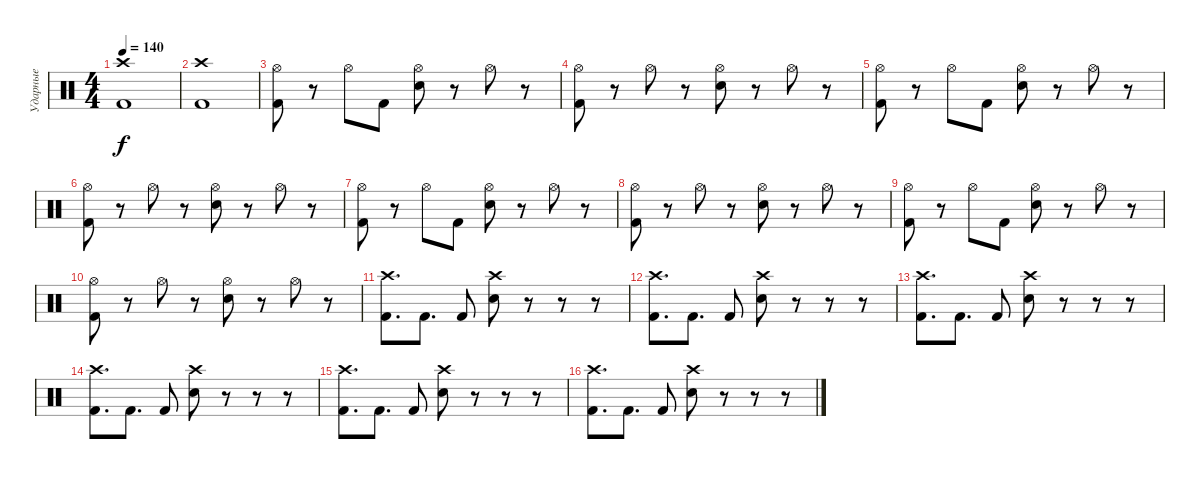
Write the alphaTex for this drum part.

\track ("Ударные" "Ударные") {mute instrument percussion}
\staff {score}
\articulation defaults
\ts (4 4)
\tempo 140
\clef neutral
\ks c
("Kick (hit) 2" "Crash high (hit)").1{dy f} |
("Kick (hit) 2" "Crash high (hit)").1 |
("Kick (hit) 2" "Hi-Hat (open)").8 r.8 "Hi-Hat (open)".8 "Kick (hit) 2".8 ("Electric Snare (hit)" "Hi-Hat (open)").8 r.8 "Hi-Hat (open)".8 r.8 |
("Kick (hit) 2" "Hi-Hat (open)").8 r.8 "Hi-Hat (open)".8 r.8 ("Electric Snare (hit)" "Hi-Hat (open)").8 r.8 "Hi-Hat (open)".8 r.8 |
("Kick (hit) 2" "Hi-Hat (open)").8 r.8 "Hi-Hat (open)".8 "Kick (hit) 2".8 ("Electric Snare (hit)" "Hi-Hat (open)").8 r.8 "Hi-Hat (open)".8 r.8 |
("Kick (hit) 2" "Hi-Hat (open)").8 r.8 "Hi-Hat (open)".8 r.8 ("Electric Snare (hit)" "Hi-Hat (open)").8 r.8 "Hi-Hat (open)".8 r.8 |
("Kick (hit) 2" "Hi-Hat (open)").8 r.8 "Hi-Hat (open)".8 "Kick (hit) 2".8 ("Electric Snare (hit)" "Hi-Hat (open)").8 r.8 "Hi-Hat (open)".8 r.8 |
("Kick (hit) 2" "Hi-Hat (open)").8 r.8 "Hi-Hat (open)".8 r.8 ("Electric Snare (hit)" "Hi-Hat (open)").8 r.8 "Hi-Hat (open)".8 r.8 |
("Kick (hit) 2" "Hi-Hat (open)").8 r.8 "Hi-Hat (open)".8 "Kick (hit) 2".8 ("Electric Snare (hit)" "Hi-Hat (open)").8 r.8 "Hi-Hat (open)".8 r.8 |
("Kick (hit) 2" "Hi-Hat (open)").8 r.8 "Hi-Hat (open)".8 r.8 ("Electric Snare (hit)" "Hi-Hat (open)").8 r.8 "Hi-Hat (open)".8 r.8 |
("Crash high (hit)" "Kick (hit) 2").8{d} "Kick (hit) 2".8{d} "Kick (hit) 2".8 ("Crash high (hit)" "Electric Snare (hit)").8 r.8 r.8 r.8 |
("Crash high (hit)" "Kick (hit) 2").8{d} "Kick (hit) 2".8{d} "Kick (hit) 2".8 ("Crash high (hit)" "Electric Snare (hit)").8 r.8 r.8 r.8 |
("Crash high (hit)" "Kick (hit) 2").8{d} "Kick (hit) 2".8{d} "Kick (hit) 2".8 ("Crash high (hit)" "Electric Snare (hit)").8 r.8 r.8 r.8 |
("Crash high (hit)" "Kick (hit) 2").8{d} "Kick (hit) 2".8{d} "Kick (hit) 2".8 ("Crash high (hit)" "Electric Snare (hit)").8 r.8 r.8 r.8 |
("Crash high (hit)" "Kick (hit) 2").8{d} "Kick (hit) 2".8{d} "Kick (hit) 2".8 ("Crash high (hit)" "Electric Snare (hit)").8 r.8 r.8 r.8 |
("Crash high (hit)" "Kick (hit) 2").8{d} "Kick (hit) 2".8{d} "Kick (hit) 2".8 ("Crash high (hit)" "Electric Snare (hit)").8 r.8 r.8 r.8
